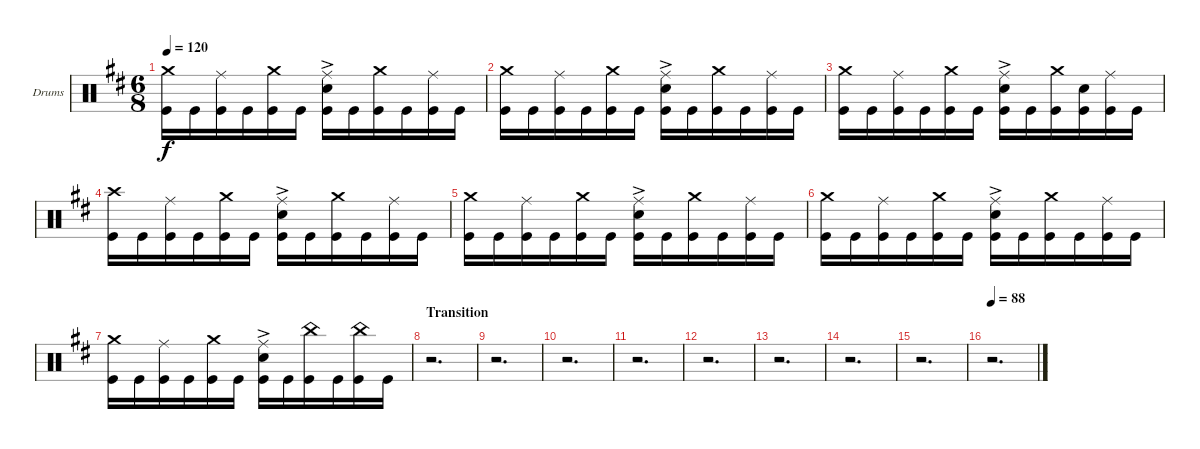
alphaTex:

\bracketExtendMode groupsimilarinstruments
\firstSystemTrackNameOrientation horizontal
\otherSystemsTrackNameOrientation horizontal
\track ("Drumkit" "Drums") {instrument percussion}
\staff {score}
\articulation defaults
\ts (6 8)
\tempo 120
\clef neutral
\ks d
("Kick (hit)" "Crash medium (hit)").16{dy f} "Kick (hit)".16 ("Kick (hit)" "Ride (middle)").16 "Kick (hit)".16 ("Kick (hit)" "Crash medium (hit)").16 "Kick (hit)".16 ("Kick (hit)" "Snare (hit) 2"{ac} "Ride (middle)").16 "Kick (hit)".16 ("Kick (hit)" "Crash medium (hit)").16 "Kick (hit)".16 ("Kick (hit)" "Ride (middle)").16 "Kick (hit)".16 |
("Kick (hit)" "Crash medium (hit)").16 "Kick (hit)".16 ("Kick (hit)" "Ride (middle)").16 "Kick (hit)".16 ("Kick (hit)" "Crash medium (hit)").16 "Kick (hit)".16 ("Kick (hit)" "Snare (hit) 2"{ac} "Ride (middle)").16 "Kick (hit)".16 ("Kick (hit)" "Crash medium (hit)").16 "Kick (hit)".16 ("Kick (hit)" "Ride (middle)").16 "Kick (hit)".16 |
("Kick (hit)" "Crash medium (hit)").16 "Kick (hit)".16 ("Kick (hit)" "Ride (middle)").16 "Kick (hit)".16 ("Kick (hit)" "Crash medium (hit)").16 "Kick (hit)".16 ("Kick (hit)" "Snare (hit) 2"{ac} "Ride (middle)").16 "Kick (hit)".16 ("Kick (hit)" "Crash medium (hit)").16 ("Kick (hit)" "Snare (hit) 2").16 ("Kick (hit)" "Ride (middle)").16 "Kick (hit)".16 |
("Kick (hit)" "Crash high (hit)").16 "Kick (hit)".16 ("Kick (hit)" "Ride (middle)").16 "Kick (hit)".16 ("Kick (hit)" "Crash medium (hit)").16 "Kick (hit)".16 ("Kick (hit)" "Snare (hit) 2"{ac} "Ride (middle)").16 "Kick (hit)".16 ("Kick (hit)" "Crash medium (hit)").16 "Kick (hit)".16 ("Kick (hit)" "Ride (middle)").16 "Kick (hit)".16 |
("Kick (hit)" "Crash medium (hit)").16 "Kick (hit)".16 ("Kick (hit)" "Ride (middle)").16 "Kick (hit)".16 ("Kick (hit)" "Crash medium (hit)").16 "Kick (hit)".16 ("Kick (hit)" "Snare (hit) 2"{ac} "Ride (middle)").16 "Kick (hit)".16 ("Kick (hit)" "Crash medium (hit)").16 "Kick (hit)".16 ("Kick (hit)" "Ride (middle)").16 "Kick (hit)".16 |
("Kick (hit)" "Crash medium (hit)").16 "Kick (hit)".16 ("Kick (hit)" "Ride (middle)").16 "Kick (hit)".16 ("Kick (hit)" "Crash medium (hit)").16 "Kick (hit)".16 ("Kick (hit)" "Snare (hit) 2"{ac} "Ride (middle)").16 "Kick (hit)".16 ("Kick (hit)" "Crash medium (hit)").16 "Kick (hit)".16 ("Kick (hit)" "Ride (middle)").16 "Kick (hit)".16 |
("Kick (hit)" "Crash medium (hit)").16 "Kick (hit)".16 ("Kick (hit)" "Ride (middle)").16 "Kick (hit)".16 ("Kick (hit)" "Crash medium (hit)").16 "Kick (hit)".16 ("Kick (hit)" "Snare (hit) 2"{ac} "Ride (middle)").16 "Kick (hit)".16 ("Kick (hit)" "China (hit)").16 "Kick (hit)".16 ("Kick (hit)" "China (hit)").16 "Kick (hit)".16 |
\section ("" "Transition")
r.2{d} |
r.2{d} |
r.2{d} |
r.2{d} |
r.2{d} |
r.2{d} |
r.2{d} |
r.2{d} |
\tempo 88
r.2{d}
